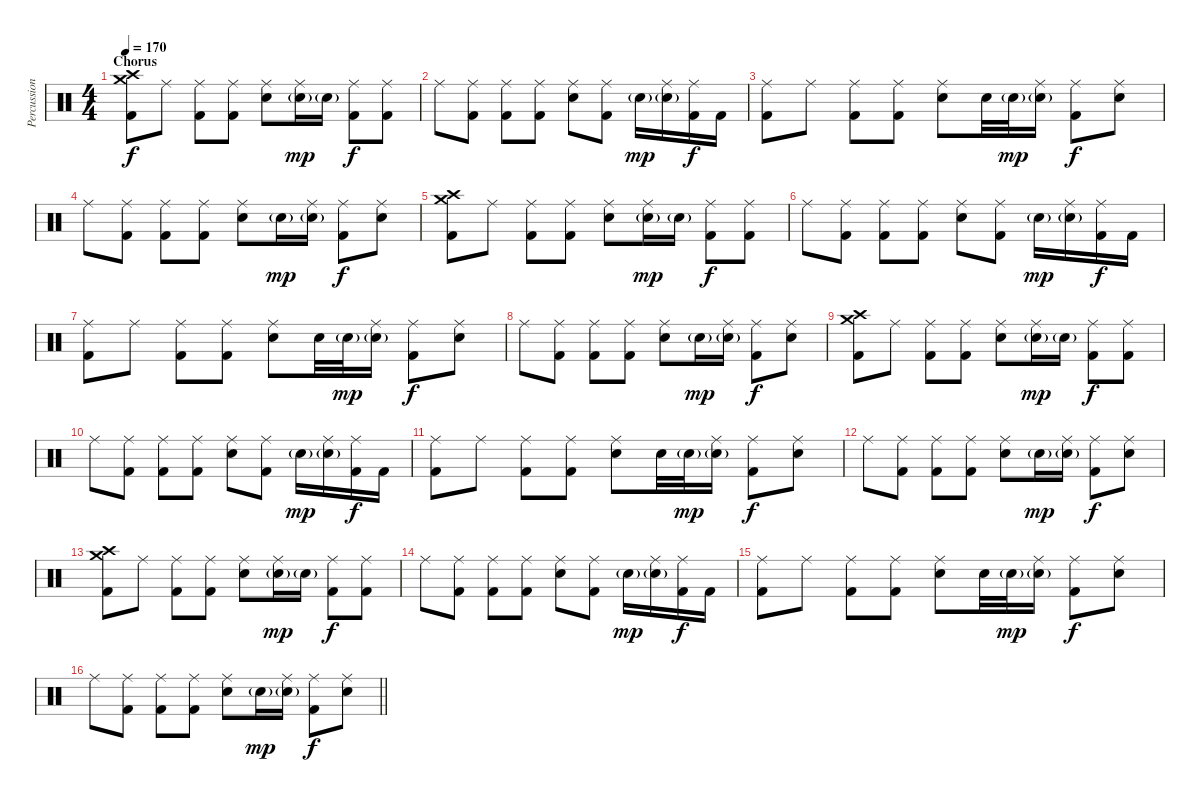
\track ("Percussion" "Percussion") {instrument percussion}
\staff {score}
\articulation defaults
\ts (4 4)
\section ("" "Chorus")
\tempo 170
\clef neutral
\ks c
("Crash medium (hit)" "Crash high (hit)" "Kick (hit) 2").8{dy f} "Ride (middle)".8 ("Ride (middle)" "Kick (hit) 2").8 ("Ride (middle)" "Kick (hit) 2").8 ("Ride (middle)" "Electric Snare (hit)").8 ("Ride (middle)" "Electric Snare (hit)"{g}).16{dy mp} "Electric Snare (hit)"{g}.16 ("Ride (middle)" "Kick (hit) 2").8{dy f} ("Ride (middle)" "Kick (hit) 2").8 |
"Ride (middle)".8 ("Ride (middle)" "Kick (hit) 2").8 ("Ride (middle)" "Kick (hit) 2").8 ("Ride (middle)" "Kick (hit) 2").8 ("Ride (middle)" "Electric Snare (hit)").8 ("Ride (middle)" "Kick (hit) 2").8 "Electric Snare (hit)"{g}.16{dy mp} ("Ride (middle)" "Electric Snare (hit)"{g}).16 ("Ride (middle)" "Kick (hit) 2").16{dy f} "Kick (hit) 2".16 |
("Ride (middle)" "Kick (hit) 2").8 "Ride (middle)".8 ("Ride (middle)" "Kick (hit) 2").8 ("Ride (middle)" "Kick (hit) 2").8 ("Ride (middle)" "Electric Snare (hit)").8 "Electric Snare (hit)".32 "Electric Snare (hit)"{g}.32{dy mp} ("Ride (middle)" "Electric Snare (hit)"{g}).16 ("Ride (middle)" "Kick (hit) 2").8{dy f} ("Ride (middle)" "Electric Snare (hit)").8 |
"Ride (middle)".8 ("Ride (middle)" "Kick (hit) 2").8 ("Ride (middle)" "Kick (hit) 2").8 ("Ride (middle)" "Kick (hit) 2").8 ("Ride (middle)" "Electric Snare (hit)").8 "Electric Snare (hit)"{g}.16{dy mp} ("Ride (middle)" "Electric Snare (hit)"{g}).16 ("Ride (middle)" "Kick (hit) 2").8{dy f} ("Ride (middle)" "Electric Snare (hit)").8 |
("Crash medium (hit)" "Crash high (hit)" "Kick (hit) 2").8 "Ride (middle)".8 ("Ride (middle)" "Kick (hit) 2").8 ("Ride (middle)" "Kick (hit) 2").8 ("Ride (middle)" "Electric Snare (hit)").8 ("Ride (middle)" "Electric Snare (hit)"{g}).16{dy mp} "Electric Snare (hit)"{g}.16 ("Ride (middle)" "Kick (hit) 2").8{dy f} ("Ride (middle)" "Kick (hit) 2").8 |
"Ride (middle)".8 ("Ride (middle)" "Kick (hit) 2").8 ("Ride (middle)" "Kick (hit) 2").8 ("Ride (middle)" "Kick (hit) 2").8 ("Ride (middle)" "Electric Snare (hit)").8 ("Ride (middle)" "Kick (hit) 2").8 "Electric Snare (hit)"{g}.16{dy mp} ("Ride (middle)" "Electric Snare (hit)"{g}).16 ("Ride (middle)" "Kick (hit) 2").16{dy f} "Kick (hit) 2".16 |
("Ride (middle)" "Kick (hit) 2").8 "Ride (middle)".8 ("Ride (middle)" "Kick (hit) 2").8 ("Ride (middle)" "Kick (hit) 2").8 ("Ride (middle)" "Electric Snare (hit)").8 "Electric Snare (hit)".32 "Electric Snare (hit)"{g}.32{dy mp} ("Ride (middle)" "Electric Snare (hit)"{g}).16 ("Ride (middle)" "Kick (hit) 2").8{dy f} ("Ride (middle)" "Electric Snare (hit)").8 |
"Ride (middle)".8 ("Ride (middle)" "Kick (hit) 2").8 ("Ride (middle)" "Kick (hit) 2").8 ("Ride (middle)" "Kick (hit) 2").8 ("Ride (middle)" "Electric Snare (hit)").8 "Electric Snare (hit)"{g}.16{dy mp} ("Ride (middle)" "Electric Snare (hit)"{g}).16 ("Ride (middle)" "Kick (hit) 2").8{dy f} ("Ride (middle)" "Electric Snare (hit)").8 |
("Crash medium (hit)" "Crash high (hit)" "Kick (hit) 2").8 "Ride (middle)".8 ("Ride (middle)" "Kick (hit) 2").8 ("Ride (middle)" "Kick (hit) 2").8 ("Ride (middle)" "Electric Snare (hit)").8 ("Ride (middle)" "Electric Snare (hit)"{g}).16{dy mp} "Electric Snare (hit)"{g}.16 ("Ride (middle)" "Kick (hit) 2").8{dy f} ("Ride (middle)" "Kick (hit) 2").8 |
"Ride (middle)".8 ("Ride (middle)" "Kick (hit) 2").8 ("Ride (middle)" "Kick (hit) 2").8 ("Ride (middle)" "Kick (hit) 2").8 ("Ride (middle)" "Electric Snare (hit)").8 ("Ride (middle)" "Kick (hit) 2").8 "Electric Snare (hit)"{g}.16{dy mp} ("Ride (middle)" "Electric Snare (hit)"{g}).16 ("Ride (middle)" "Kick (hit) 2").16{dy f} "Kick (hit) 2".16 |
("Ride (middle)" "Kick (hit) 2").8 "Ride (middle)".8 ("Ride (middle)" "Kick (hit) 2").8 ("Ride (middle)" "Kick (hit) 2").8 ("Ride (middle)" "Electric Snare (hit)").8 "Electric Snare (hit)".32 "Electric Snare (hit)"{g}.32{dy mp} ("Ride (middle)" "Electric Snare (hit)"{g}).16 ("Ride (middle)" "Kick (hit) 2").8{dy f} ("Ride (middle)" "Electric Snare (hit)").8 |
"Ride (middle)".8 ("Ride (middle)" "Kick (hit) 2").8 ("Ride (middle)" "Kick (hit) 2").8 ("Ride (middle)" "Kick (hit) 2").8 ("Ride (middle)" "Electric Snare (hit)").8 "Electric Snare (hit)"{g}.16{dy mp} ("Ride (middle)" "Electric Snare (hit)"{g}).16 ("Ride (middle)" "Kick (hit) 2").8{dy f} ("Ride (middle)" "Electric Snare (hit)").8 |
("Crash medium (hit)" "Crash high (hit)" "Kick (hit) 2").8 "Ride (middle)".8 ("Ride (middle)" "Kick (hit) 2").8 ("Ride (middle)" "Kick (hit) 2").8 ("Ride (middle)" "Electric Snare (hit)").8 ("Ride (middle)" "Electric Snare (hit)"{g}).16{dy mp} "Electric Snare (hit)"{g}.16 ("Ride (middle)" "Kick (hit) 2").8{dy f} ("Ride (middle)" "Kick (hit) 2").8 |
"Ride (middle)".8 ("Ride (middle)" "Kick (hit) 2").8 ("Ride (middle)" "Kick (hit) 2").8 ("Ride (middle)" "Kick (hit) 2").8 ("Ride (middle)" "Electric Snare (hit)").8 ("Ride (middle)" "Kick (hit) 2").8 "Electric Snare (hit)"{g}.16{dy mp} ("Ride (middle)" "Electric Snare (hit)"{g}).16 ("Ride (middle)" "Kick (hit) 2").16{dy f} "Kick (hit) 2".16 |
("Ride (middle)" "Kick (hit) 2").8 "Ride (middle)".8 ("Ride (middle)" "Kick (hit) 2").8 ("Ride (middle)" "Kick (hit) 2").8 ("Ride (middle)" "Electric Snare (hit)").8 "Electric Snare (hit)".32 "Electric Snare (hit)"{g}.32{dy mp} ("Ride (middle)" "Electric Snare (hit)"{g}).16 ("Ride (middle)" "Kick (hit) 2").8{dy f} ("Ride (middle)" "Electric Snare (hit)").8 |
\barLineRight lightlight "Ride (middle)".8
("Ride (middle)" "Kick (hit) 2").8 ("Ride (middle)" "Kick (hit) 2").8 ("Ride (middle)" "Kick (hit) 2").8 ("Ride (middle)" "Electric Snare (hit)").8 "Electric Snare (hit)"{g}.16{dy mp} ("Ride (middle)" "Electric Snare (hit)"{g}).16 ("Ride (middle)" "Kick (hit) 2").8{dy f} ("Ride (middle)" "Electric Snare (hit)").8
